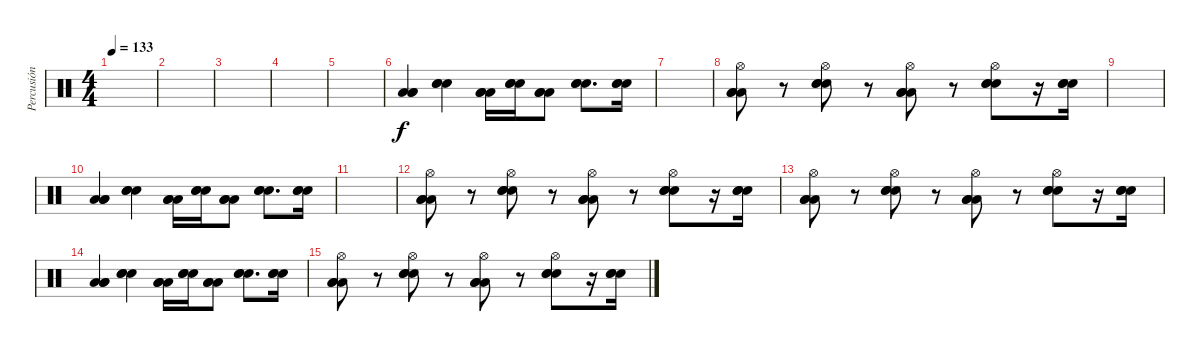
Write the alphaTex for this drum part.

\track ("Percusión" "Percusión") {instrument percussion}
\staff {score}
\articulation defaults
\ts (4 4)
\tempo 133
\clef neutral
\ks c
|
|
|
|
|
("Low Tom (hit)" "Low Tom (hit)" "Low Tom (hit)").4 ("Snare (hit) 2" "Snare (hit) 2" "Snare (hit) 2").4 ("Low Tom (hit)" "Low Tom (hit)" "Low Tom (hit)").16 ("Snare (hit) 2" "Snare (hit) 2" "Snare (hit) 2").16 ("Low Tom (hit)" "Low Tom (hit)" "Low Tom (hit)").8 ("Snare (hit) 2" "Snare (hit) 2" "Snare (hit) 2").8{d} ("Snare (hit) 2" "Snare (hit) 2" "Snare (hit) 2").16 |
|
("Hi-Hat (open)" "Low Tom (hit)" "Low Tom (hit)" "Low Tom (hit)").8 r.8 ("Hi-Hat (open)" "Snare (hit) 2" "Snare (hit) 2" "Snare (hit) 2").8 r.8 ("Hi-Hat (open)" "Low Tom (hit)" "Low Tom (hit)" "Low Tom (hit)").8 r.8 ("Hi-Hat (open)" "Snare (hit) 2" "Snare (hit) 2" "Snare (hit) 2").8 r.16 ("Snare (hit) 2" "Snare (hit) 2" "Snare (hit) 2").16 |
|
("Low Tom (hit)" "Low Tom (hit)" "Low Tom (hit)").4 ("Snare (hit) 2" "Snare (hit) 2" "Snare (hit) 2").4 ("Low Tom (hit)" "Low Tom (hit)" "Low Tom (hit)").16 ("Snare (hit) 2" "Snare (hit) 2" "Snare (hit) 2").16 ("Low Tom (hit)" "Low Tom (hit)" "Low Tom (hit)").8 ("Snare (hit) 2" "Snare (hit) 2" "Snare (hit) 2").8{d} ("Snare (hit) 2" "Snare (hit) 2" "Snare (hit) 2").16 |
|
("Hi-Hat (open)" "Low Tom (hit)" "Low Tom (hit)" "Low Tom (hit)").8 r.8 ("Hi-Hat (open)" "Snare (hit) 2" "Snare (hit) 2" "Snare (hit) 2").8 r.8 ("Hi-Hat (open)" "Low Tom (hit)" "Low Tom (hit)" "Low Tom (hit)").8 r.8 ("Hi-Hat (open)" "Snare (hit) 2" "Snare (hit) 2" "Snare (hit) 2").8 r.16 ("Snare (hit) 2" "Snare (hit) 2" "Snare (hit) 2").16 |
("Hi-Hat (open)" "Low Tom (hit)" "Low Tom (hit)" "Low Tom (hit)").8 r.8 ("Hi-Hat (open)" "Snare (hit) 2" "Snare (hit) 2" "Snare (hit) 2").8 r.8 ("Hi-Hat (open)" "Low Tom (hit)" "Low Tom (hit)" "Low Tom (hit)").8 r.8 ("Hi-Hat (open)" "Snare (hit) 2" "Snare (hit) 2" "Snare (hit) 2").8 r.16 ("Snare (hit) 2" "Snare (hit) 2" "Snare (hit) 2").16 |
("Low Tom (hit)" "Low Tom (hit)" "Low Tom (hit)").4 ("Snare (hit) 2" "Snare (hit) 2" "Snare (hit) 2").4 ("Low Tom (hit)" "Low Tom (hit)" "Low Tom (hit)").16 ("Snare (hit) 2" "Snare (hit) 2" "Snare (hit) 2").16 ("Low Tom (hit)" "Low Tom (hit)" "Low Tom (hit)").8 ("Snare (hit) 2" "Snare (hit) 2" "Snare (hit) 2").8{d} ("Snare (hit) 2" "Snare (hit) 2" "Snare (hit) 2").16 |
("Hi-Hat (open)" "Low Tom (hit)" "Low Tom (hit)" "Low Tom (hit)").8 r.8 ("Hi-Hat (open)" "Snare (hit) 2" "Snare (hit) 2" "Snare (hit) 2").8 r.8 ("Hi-Hat (open)" "Low Tom (hit)" "Low Tom (hit)" "Low Tom (hit)").8 r.8 ("Hi-Hat (open)" "Snare (hit) 2" "Snare (hit) 2" "Snare (hit) 2").8 r.16 ("Snare (hit) 2" "Snare (hit) 2" "Snare (hit) 2").16
